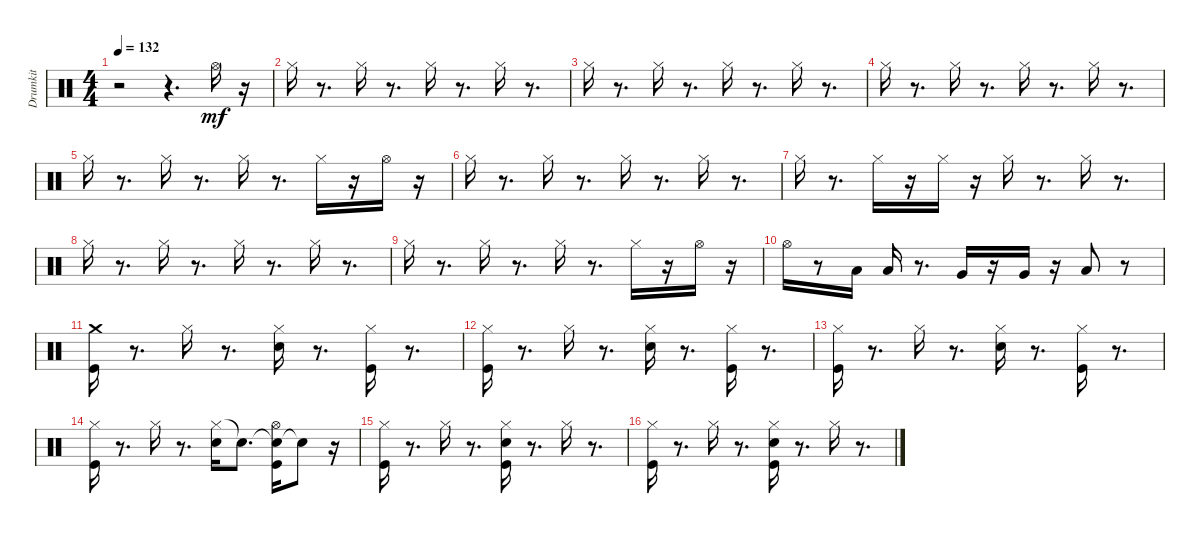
\track ("Drumkit" "Drumkit") {instrument percussion}
\staff {score}
\articulation defaults
\ts (4 4)
\tempo 132
\clef neutral
\ks aminor
r.2{dy mf} r.4{d} "Hi-Hat (open)".16 r.16 |
"Hi-Hat (closed)".16 r.8{d} "Hi-Hat (closed)".16 r.8{d} "Hi-Hat (closed)".16 r.8{d} "Hi-Hat (closed)".16 r.8{d} |
"Hi-Hat (closed)".16 r.8{d} "Hi-Hat (closed)".16 r.8{d} "Hi-Hat (closed)".16 r.8{d} "Hi-Hat (closed)".16 r.8{d} |
"Hi-Hat (closed)".16 r.8{d} "Hi-Hat (closed)".16 r.8{d} "Hi-Hat (closed)".16 r.8{d} "Hi-Hat (closed)".16 r.8{d} |
"Hi-Hat (closed)".16 r.8{d} "Hi-Hat (closed)".16 r.8{d} "Hi-Hat (closed)".16 r.8{d} "Hi-Hat (closed)".16 r.16 "Hi-Hat (open)".16 r.16 |
"Hi-Hat (closed)".16 r.8{d} "Hi-Hat (closed)".16 r.8{d} "Hi-Hat (closed)".16 r.8{d} "Hi-Hat (closed)".16 r.8{d} |
"Hi-Hat (closed)".16 r.8{d} "Hi-Hat (closed)".16 r.16 "Hi-Hat (closed)".16 r.16 "Hi-Hat (closed)".16 r.8{d} "Hi-Hat (closed)".16 r.8{d} |
"Hi-Hat (closed)".16 r.8{d} "Hi-Hat (closed)".16 r.8{d} "Hi-Hat (closed)".16 r.8{d} "Hi-Hat (closed)".16 r.8{d} |
"Hi-Hat (closed)".16 r.8{d} "Hi-Hat (closed)".16 r.8{d} "Hi-Hat (closed)".16 r.8{d} "Hi-Hat (closed)".16 r.16 "Hi-Hat (open)".16 r.16 |
"Hi-Hat (open)".16 r.8 "Low Tom (hit)".16 "Low Tom (hit)".16 r.8{d} "Very Low Tom (hit)".16 r.16 "Very Low Tom (hit)".16 r.16 "Low Floor Tom (hit)".8 r.8 |
("Kick (hit)" "Crash medium (hit)").16 r.8{d} "Hi-Hat (closed)".16 r.8{d} ("Snare (hit) 2" "Hi-Hat (closed)").16 r.8{d} ("Kick (hit)" "Hi-Hat (closed)").16 r.8{d} |
("Kick (hit)" "Hi-Hat (closed)").16 r.8{d} "Hi-Hat (closed)".16 r.8{d} ("Snare (hit) 2" "Hi-Hat (closed)").16 r.8{d} ("Kick (hit)" "Hi-Hat (closed)").16 r.8{d} |
("Kick (hit)" "Hi-Hat (closed)").16 r.8{d} "Hi-Hat (closed)".16 r.8{d} ("Snare (hit) 2" "Hi-Hat (closed)").16 r.8{d} ("Kick (hit)" "Hi-Hat (closed)").16 r.8{d} |
("Kick (hit)" "Hi-Hat (closed)").16 r.8{d} "Hi-Hat (closed)".16 r.8{d} ("Hi-Hat (closed)" "Snare (hit) 2").16 "Snare (hit) 2"{t}.8{d} ("Snare (hit) 2"{t} "Kick (hit)" "Hi-Hat (open)").16 "Snare (hit) 2"{t}.8 r.16 |
("Kick (hit)" "Hi-Hat (closed)").16 r.8{d} "Hi-Hat (closed)".16 r.8{d} ("Kick (hit)" "Snare (hit) 2" "Hi-Hat (closed)").16 r.8{d} "Hi-Hat (closed)".16 r.8{d} |
("Kick (hit)" "Hi-Hat (closed)").16 r.8{d} "Hi-Hat (closed)".16 r.8{d} ("Kick (hit)" "Snare (hit) 2" "Hi-Hat (closed)").16 r.8{d} "Hi-Hat (closed)".16 r.8{d}
